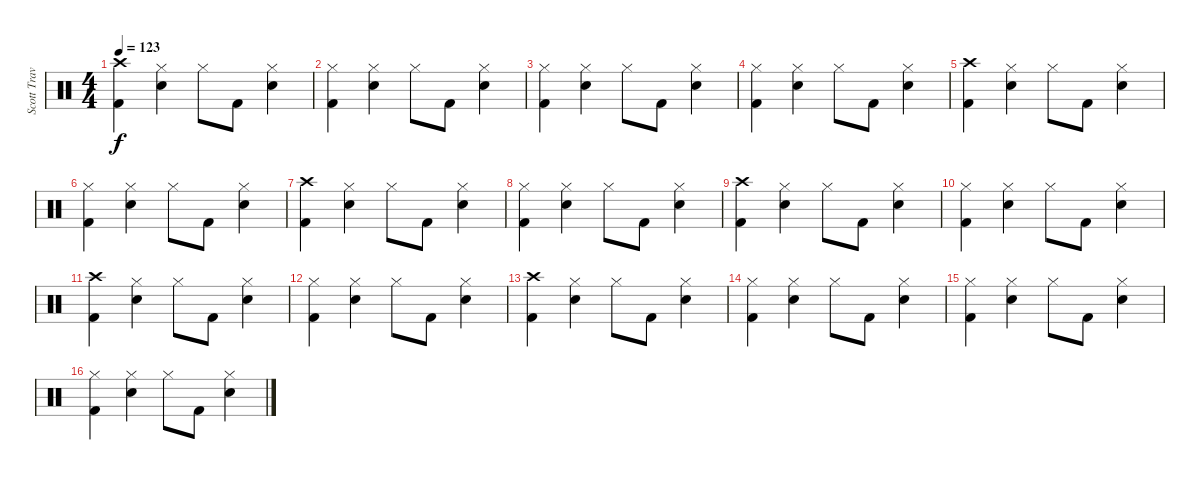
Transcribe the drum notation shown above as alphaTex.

\track ("Scott Travis" "Scott Trav") {instrument percussion}
\staff {score}
\articulation defaults
\ts (4 4)
\tempo 123
\clef neutral
\ks c
("Crash high (hit)" "Kick (hit) 2").4{dy f} ("Hi-Hat (closed)" "Snare (hit) 2").4 "Hi-Hat (closed)".8 "Kick (hit) 2".8 ("Hi-Hat (closed)" "Snare (hit) 2").4 |
("Hi-Hat (closed)" "Kick (hit) 2").4 ("Hi-Hat (closed)" "Snare (hit) 2").4 "Hi-Hat (closed)".8 "Kick (hit) 2".8 ("Hi-Hat (closed)" "Snare (hit) 2").4 |
("Hi-Hat (closed)" "Kick (hit) 2").4 ("Hi-Hat (closed)" "Snare (hit) 2").4 "Hi-Hat (closed)".8 "Kick (hit) 2".8 ("Hi-Hat (closed)" "Snare (hit) 2").4 |
("Hi-Hat (closed)" "Kick (hit) 2").4 ("Hi-Hat (closed)" "Snare (hit) 2").4 "Hi-Hat (closed)".8 "Kick (hit) 2".8 ("Hi-Hat (closed)" "Snare (hit) 2").4 |
("Crash high (hit)" "Kick (hit) 2").4 ("Hi-Hat (closed)" "Snare (hit) 2").4 "Hi-Hat (closed)".8 "Kick (hit) 2".8 ("Hi-Hat (closed)" "Snare (hit) 2").4 |
("Hi-Hat (closed)" "Kick (hit) 2").4 ("Hi-Hat (closed)" "Snare (hit) 2").4 "Hi-Hat (closed)".8 "Kick (hit) 2".8 ("Hi-Hat (closed)" "Snare (hit) 2").4 |
("Crash high (hit)" "Kick (hit) 2").4 ("Hi-Hat (closed)" "Snare (hit) 2").4 "Hi-Hat (closed)".8 "Kick (hit) 2".8 ("Hi-Hat (closed)" "Snare (hit) 2").4 |
("Hi-Hat (closed)" "Kick (hit) 2").4 ("Hi-Hat (closed)" "Snare (hit) 2").4 "Hi-Hat (closed)".8 "Kick (hit) 2".8 ("Hi-Hat (closed)" "Snare (hit) 2").4 |
("Crash high (hit)" "Kick (hit) 2").4 ("Hi-Hat (closed)" "Snare (hit) 2").4 "Hi-Hat (closed)".8 "Kick (hit) 2".8 ("Hi-Hat (closed)" "Snare (hit) 2").4 |
("Hi-Hat (closed)" "Kick (hit) 2").4 ("Hi-Hat (closed)" "Snare (hit) 2").4 "Hi-Hat (closed)".8 "Kick (hit) 2".8 ("Hi-Hat (closed)" "Snare (hit) 2").4 |
("Crash high (hit)" "Kick (hit) 2").4 ("Hi-Hat (closed)" "Snare (hit) 2").4 "Hi-Hat (closed)".8 "Kick (hit) 2".8 ("Hi-Hat (closed)" "Snare (hit) 2").4 |
("Hi-Hat (closed)" "Kick (hit) 2").4 ("Hi-Hat (closed)" "Snare (hit) 2").4 "Hi-Hat (closed)".8 "Kick (hit) 2".8 ("Hi-Hat (closed)" "Snare (hit) 2").4 |
("Crash high (hit)" "Kick (hit) 2").4 ("Hi-Hat (closed)" "Snare (hit) 2").4 "Hi-Hat (closed)".8 "Kick (hit) 2".8 ("Hi-Hat (closed)" "Snare (hit) 2").4 |
("Hi-Hat (closed)" "Kick (hit) 2").4 ("Hi-Hat (closed)" "Snare (hit) 2").4 "Hi-Hat (closed)".8 "Kick (hit) 2".8 ("Hi-Hat (closed)" "Snare (hit) 2").4 |
("Hi-Hat (closed)" "Kick (hit) 2").4 ("Hi-Hat (closed)" "Snare (hit) 2").4 "Hi-Hat (closed)".8 "Kick (hit) 2".8 ("Hi-Hat (closed)" "Snare (hit) 2").4 |
("Hi-Hat (closed)" "Kick (hit) 2").4 ("Hi-Hat (closed)" "Snare (hit) 2").4 "Hi-Hat (closed)".8 "Kick (hit) 2".8 ("Hi-Hat (closed)" "Snare (hit) 2").4
